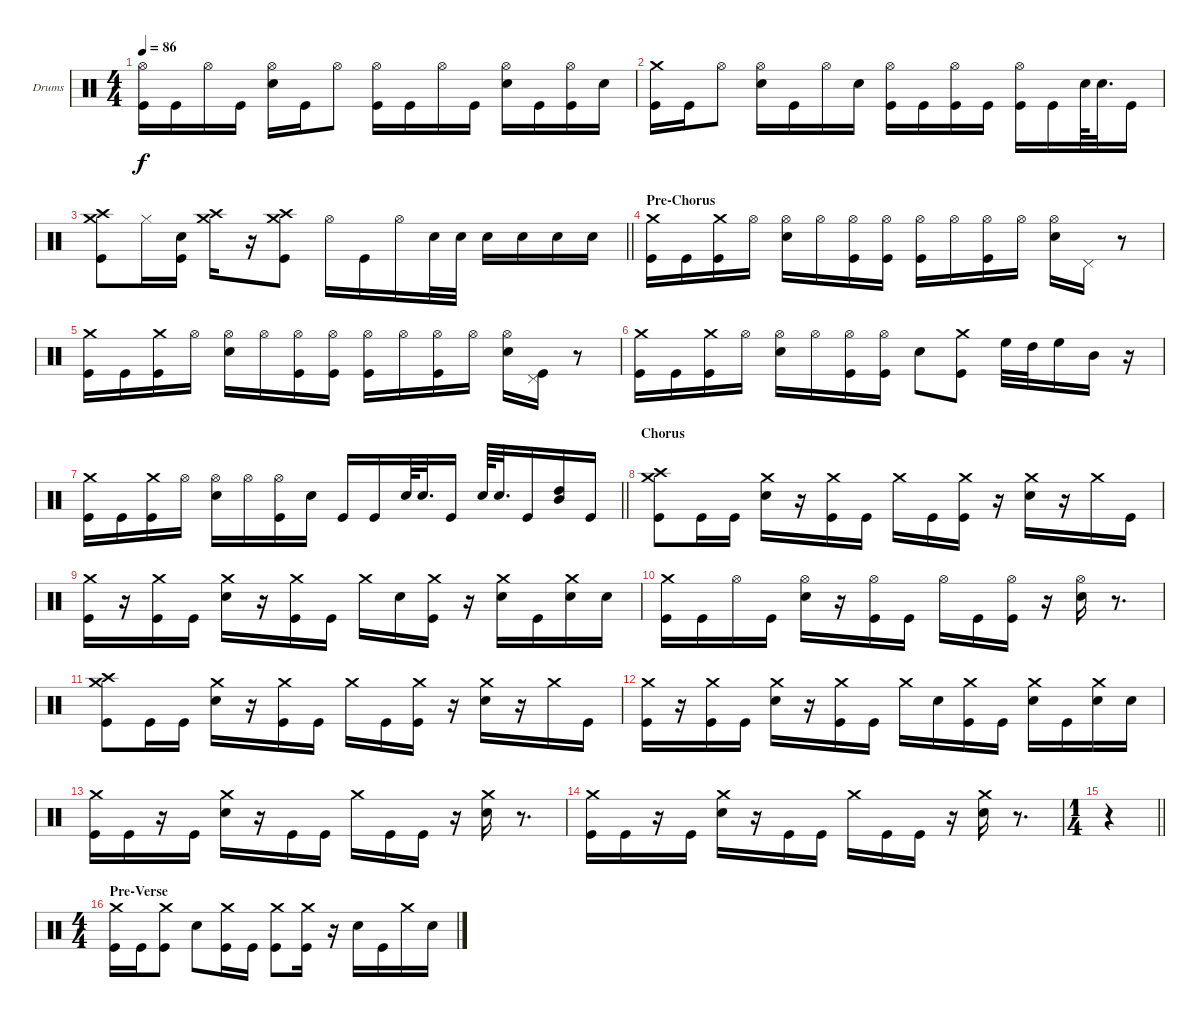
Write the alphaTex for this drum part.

\bracketExtendMode groupsimilarinstruments
\firstSystemTrackNameOrientation horizontal
\otherSystemsTrackNameOrientation horizontal
\track ("Drumkit" "Drums") {instrument percussion}
\staff {score}
\articulation defaults
\voice
\ts (4 4)
\tempo 86
\clef neutral
\ks c
("Hi-Hat (open)" "Kick (hit)").16{dy f} "Kick (hit)".16 "Hi-Hat (open)".16 "Kick (hit)".16 ("Hi-Hat (open)" "Snare (hit) 2").16 "Kick (hit)".16 "Hi-Hat (open)".8 ("Hi-Hat (open)" "Kick (hit)").16 "Kick (hit)".16 "Hi-Hat (open)".16 "Kick (hit)".16 ("Hi-Hat (open)" "Snare (hit) 2").16 "Kick (hit)".16 ("Hi-Hat (open)" "Kick (hit)").16 "Snare (hit) 2".16 |
("Crash medium (hit)" "Kick (hit)").16 "Kick (hit)".16 "Hi-Hat (open)".8 ("Hi-Hat (open)" "Snare (hit) 2").16 "Kick (hit)".16 "Hi-Hat (open)".16 "Snare (hit) 2".16 ("Hi-Hat (open)" "Kick (hit)").16 "Kick (hit)".16 ("Hi-Hat (open)" "Kick (hit)").16 "Kick (hit)".16 ("Hi-Hat (open)" "Kick (hit)").16 "Kick (hit)".16 "Snare (hit) 2".64 "Snare (hit) 2".32{d} "Kick (hit)".16 |
\barLineRight lightlight
("Crash medium (hit)" "Crash high (hit)" "Kick (hit)").8 "Hi-Hat (closed)".16 ("Snare (hit) 2" "Kick (hit)").16 ("Crash medium (hit)" "Crash high (hit)").16 r.16 ("Crash medium (hit)" "Crash high (hit)" "Kick (hit)").8 "Hi-Hat (open)".16 "Kick (hit)".16 "Hi-Hat (open)".16 "Snare (hit) 2".32 "Snare (hit) 2".32 "Snare (hit) 2".16 "Snare (hit) 2".16 "Snare (hit) 2".16 "Snare (hit) 2".16 |
\section ("" "Pre-Chorus")
("Crash medium (hit)" "Kick (hit)").16 "Kick (hit)".16 ("Crash medium (hit)" "Kick (hit)").16 "Hi-Hat (open)".16 ("Hi-Hat (open)" "Snare (hit) 2").16 "Hi-Hat (open)".16 ("Hi-Hat (open)" "Kick (hit)").16 ("Hi-Hat (open)" "Kick (hit)").16 ("Hi-Hat (open)" "Kick (hit)").16 "Hi-Hat (open)".16 ("Hi-Hat (open)" "Kick (hit)").16 "Hi-Hat (open)".16 ("Hi-Hat (open)" "Snare (hit) 2").16 "Pedal Hi-Hat (hit)".16 r.8 |
("Crash medium (hit)" "Kick (hit)").16 "Kick (hit)".16 ("Crash medium (hit)" "Kick (hit)").16 "Hi-Hat (open)".16 ("Hi-Hat (open)" "Snare (hit) 2").16 "Hi-Hat (open)".16 ("Hi-Hat (open)" "Kick (hit)").16 ("Hi-Hat (open)" "Kick (hit)").16 ("Hi-Hat (open)" "Kick (hit)").16 "Hi-Hat (open)".16 ("Hi-Hat (open)" "Kick (hit)").16 "Hi-Hat (open)".16 ("Hi-Hat (open)" "Snare (hit) 2").16 ("Pedal Hi-Hat (hit)" "Kick (hit)").16 r.8 |
("Crash medium (hit)" "Kick (hit)").16 "Kick (hit)".16 ("Crash medium (hit)" "Kick (hit)").16 "Hi-Hat (open)".16 ("Hi-Hat (open)" "Snare (hit) 2").16 "Hi-Hat (open)".16 ("Hi-Hat (open)" "Kick (hit)").16 ("Hi-Hat (open)" "Kick (hit)").16 "Snare (hit) 2".8 ("Crash medium (hit)" "Kick (hit)").8 "High Floor Tom (hit)".32 "High Tom (hit)".32 "High Floor Tom (hit)".16 "Mid Tom (hit)".16 r.16 |
\barLineRight lightlight
("Crash medium (hit)" "Kick (hit)").16 "Kick (hit)".16 ("Crash medium (hit)" "Kick (hit)").16 "Hi-Hat (open)".16 ("Hi-Hat (open)" "Snare (hit) 2").16 "Hi-Hat (open)".16 ("Hi-Hat (open)" "Kick (hit)").16 "Snare (hit) 2".16 "Kick (hit)".16 "Kick (hit)".16 "Snare (hit) 2".64 "Snare (hit) 2".32{d} "Kick (hit)".16 "Snare (hit) 2".64 "Snare (hit) 2".32{d} "Kick (hit)".16 ("Mid Tom (hit)" "High Tom (hit)").16 "Kick (hit)".16 |
\section ("" "Chorus")
("Crash medium (hit)" "Crash high (hit)" "Kick (hit)").8 "Kick (hit)".16 "Kick (hit)".16 ("Crash medium (hit)" "Snare (hit) 2").16 r.16 ("Crash medium (hit)" "Kick (hit)").16 "Kick (hit)".16 "Crash medium (hit)".16 "Kick (hit)".16 ("Crash medium (hit)" "Kick (hit)").16 r.16 ("Crash medium (hit)" "Snare (hit) 2").16 r.16 "Crash medium (hit)".16 "Kick (hit)".16 |
("Crash medium (hit)" "Kick (hit)").16 r.16 ("Crash medium (hit)" "Kick (hit)").16 "Kick (hit)".16 ("Crash medium (hit)" "Snare (hit) 2").16 r.16 ("Crash medium (hit)" "Kick (hit)").16 "Kick (hit)".16 "Crash medium (hit)".16 "Snare (hit) 2".16 ("Crash medium (hit)" "Kick (hit)").16 r.16 ("Crash medium (hit)" "Snare (hit) 2").16 "Kick (hit)".16 ("Crash medium (hit)" "Snare (hit) 2").16 "Snare (hit) 2".16 |
("Crash medium (hit)" "Kick (hit)").16 "Kick (hit)".16 "Hi-Hat (open)".16 "Kick (hit)".16 ("Hi-Hat (open)" "Snare (hit) 2").16 r.16 ("Hi-Hat (open)" "Kick (hit)").16 "Kick (hit)".16 "Hi-Hat (open)".16 "Kick (hit)".16 ("Hi-Hat (open)" "Kick (hit)").16 r.16 ("Hi-Hat (open)" "Snare (hit) 2").16 r.8{d} |
("Crash medium (hit)" "Crash high (hit)" "Kick (hit)").8 "Kick (hit)".16 "Kick (hit)".16 ("Crash medium (hit)" "Snare (hit) 2").16 r.16 ("Crash medium (hit)" "Kick (hit)").16 "Kick (hit)".16 "Crash medium (hit)".16 "Kick (hit)".16 ("Crash medium (hit)" "Kick (hit)").16 r.16 ("Crash medium (hit)" "Snare (hit) 2").16 r.16 "Crash medium (hit)".16 "Kick (hit)".16 |
("Crash medium (hit)" "Kick (hit)").16 r.16 ("Crash medium (hit)" "Kick (hit)").16 "Kick (hit)".16 ("Crash medium (hit)" "Snare (hit) 2").16 r.16 ("Crash medium (hit)" "Kick (hit)").16 "Kick (hit)".16 "Crash medium (hit)".16 "Snare (hit) 2".16 ("Crash medium (hit)" "Kick (hit)").16 "Kick (hit)".16 ("Crash medium (hit)" "Snare (hit) 2").16 "Kick (hit)".16 ("Crash medium (hit)" "Snare (hit) 2").16 "Snare (hit) 2".16 |
("Crash medium (hit)" "Kick (hit)").16 "Kick (hit)".16 r.16 "Kick (hit)".16 ("Crash medium (hit)" "Snare (hit) 2").16 r.16 "Kick (hit)".16 "Kick (hit)".16 "Crash medium (hit)".16 "Kick (hit)".16 "Kick (hit)".16 r.16 ("Crash medium (hit)" "Snare (hit) 2").16 r.8{d} |
("Crash medium (hit)" "Kick (hit)").16 "Kick (hit)".16 r.16 "Kick (hit)".16 ("Crash medium (hit)" "Snare (hit) 2").16 r.16 "Kick (hit)".16 "Kick (hit)".16 "Crash medium (hit)".16 "Kick (hit)".16 "Kick (hit)".16 r.16 ("Crash medium (hit)" "Snare (hit) 2").16 r.8{d} |
\ts (1 4)
\beaming (8 2)
\barLineRight lightlight
r.4 |
\ts (4 4)
\beaming (8 2 2 2 2)
\section ("" "Pre-Verse")
("Crash medium (hit)" "Kick (hit)").16 "Kick (hit)".16 ("Crash medium (hit)" "Kick (hit)").8 "Snare (hit) 2".8 ("Crash medium (hit)" "Kick (hit)").16 "Kick (hit)".16 ("Crash medium (hit)" "Kick (hit)").8 ("Crash medium (hit)" "Kick (hit)").16 r.16 "Snare (hit) 2".16 "Kick (hit)".16 "Crash medium (hit)".16 "Snare (hit) 2".16
\voice
\clef neutral
\ottava regular
\simile none
\ks c
|
|
\barLineRight lightlight
|
|
|
|
\barLineRight lightlight
|
|
|
|
|
|
|
|
\barLineRight lightlight
r.4{dy mf} |
